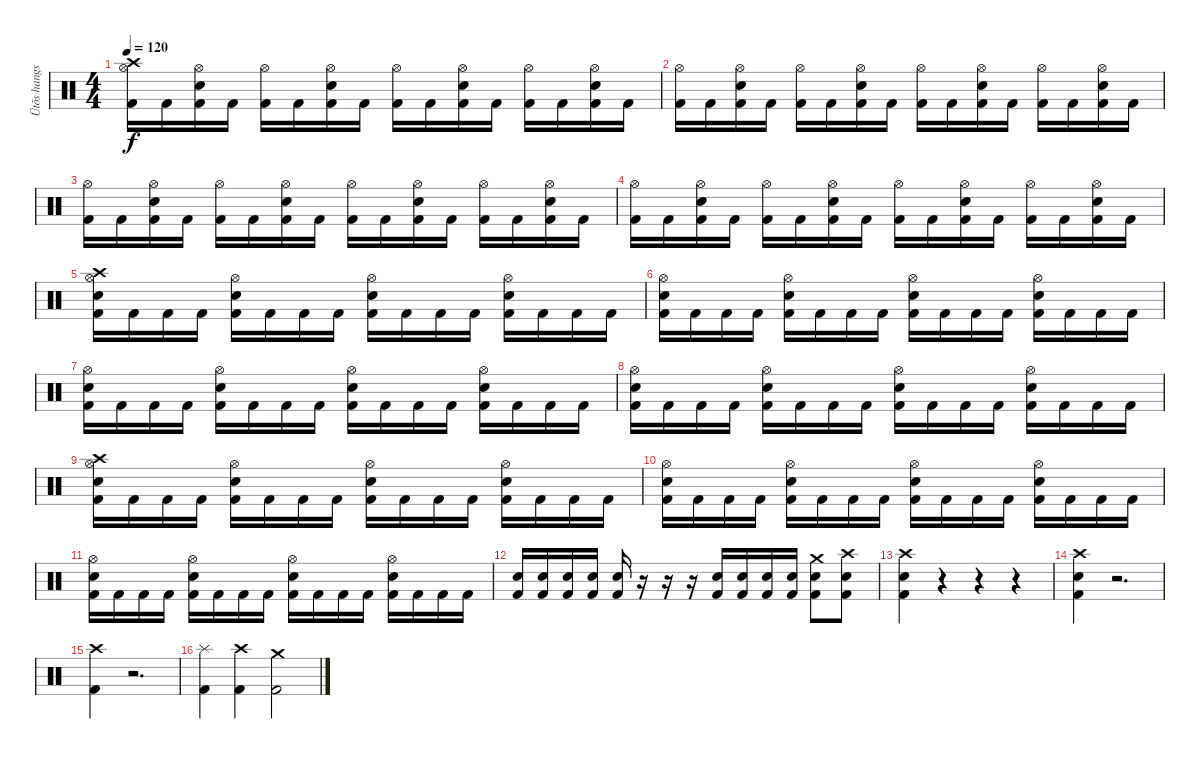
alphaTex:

\track ("Ütõs hangszer" "Ütõs hangs") {instrument percussion}
\staff {score}
\articulation defaults
\ts (4 4)
\tempo 120
\clef neutral
\ks c
("Crash high (hit)" "Hi-Hat (open)" "Kick (hit) 2").16{dy f} "Kick (hit) 2".16 ("Hi-Hat (open)" "Electric Snare (hit)" "Kick (hit) 2").16 "Kick (hit) 2".16 ("Hi-Hat (open)" "Kick (hit) 2").16 "Kick (hit) 2".16 ("Hi-Hat (open)" "Electric Snare (hit)" "Kick (hit) 2").16 "Kick (hit) 2".16 ("Hi-Hat (open)" "Kick (hit) 2").16 "Kick (hit) 2".16 ("Hi-Hat (open)" "Electric Snare (hit)" "Kick (hit) 2").16 "Kick (hit) 2".16 ("Hi-Hat (open)" "Kick (hit) 2").16 "Kick (hit) 2".16 ("Hi-Hat (open)" "Electric Snare (hit)" "Kick (hit) 2").16 "Kick (hit) 2".16 |
("Hi-Hat (open)" "Kick (hit) 2").16 "Kick (hit) 2".16 ("Hi-Hat (open)" "Electric Snare (hit)" "Kick (hit) 2").16 "Kick (hit) 2".16 ("Hi-Hat (open)" "Kick (hit) 2").16 "Kick (hit) 2".16 ("Hi-Hat (open)" "Electric Snare (hit)" "Kick (hit) 2").16 "Kick (hit) 2".16 ("Hi-Hat (open)" "Kick (hit) 2").16 "Kick (hit) 2".16 ("Hi-Hat (open)" "Electric Snare (hit)" "Kick (hit) 2").16 "Kick (hit) 2".16 ("Hi-Hat (open)" "Kick (hit) 2").16 "Kick (hit) 2".16 ("Hi-Hat (open)" "Electric Snare (hit)" "Kick (hit) 2").16 "Kick (hit) 2".16 |
("Hi-Hat (open)" "Kick (hit) 2").16 "Kick (hit) 2".16 ("Hi-Hat (open)" "Electric Snare (hit)" "Kick (hit) 2").16 "Kick (hit) 2".16 ("Hi-Hat (open)" "Kick (hit) 2").16 "Kick (hit) 2".16 ("Hi-Hat (open)" "Electric Snare (hit)" "Kick (hit) 2").16 "Kick (hit) 2".16 ("Hi-Hat (open)" "Kick (hit) 2").16 "Kick (hit) 2".16 ("Hi-Hat (open)" "Electric Snare (hit)" "Kick (hit) 2").16 "Kick (hit) 2".16 ("Hi-Hat (open)" "Kick (hit) 2").16 "Kick (hit) 2".16 ("Hi-Hat (open)" "Electric Snare (hit)" "Kick (hit) 2").16 "Kick (hit) 2".16 |
("Hi-Hat (open)" "Kick (hit) 2").16 "Kick (hit) 2".16 ("Hi-Hat (open)" "Electric Snare (hit)" "Kick (hit) 2").16 "Kick (hit) 2".16 ("Hi-Hat (open)" "Kick (hit) 2").16 "Kick (hit) 2".16 ("Hi-Hat (open)" "Electric Snare (hit)" "Kick (hit) 2").16 "Kick (hit) 2".16 ("Hi-Hat (open)" "Kick (hit) 2").16 "Kick (hit) 2".16 ("Hi-Hat (open)" "Electric Snare (hit)" "Kick (hit) 2").16 "Kick (hit) 2".16 ("Hi-Hat (open)" "Kick (hit) 2").16 "Kick (hit) 2".16 ("Hi-Hat (open)" "Electric Snare (hit)" "Kick (hit) 2").16 "Kick (hit) 2".16 |
("Crash high (hit)" "Hi-Hat (open)" "Electric Snare (hit)" "Kick (hit) 2").16 "Kick (hit) 2".16 "Kick (hit) 2".16 "Kick (hit) 2".16 ("Hi-Hat (open)" "Electric Snare (hit)" "Kick (hit) 2").16 "Kick (hit) 2".16 "Kick (hit) 2".16 "Kick (hit) 2".16 ("Hi-Hat (open)" "Electric Snare (hit)" "Kick (hit) 2").16 "Kick (hit) 2".16 "Kick (hit) 2".16 "Kick (hit) 2".16 ("Hi-Hat (open)" "Electric Snare (hit)" "Kick (hit) 2").16 "Kick (hit) 2".16 "Kick (hit) 2".16 "Kick (hit) 2".16 |
("Hi-Hat (open)" "Electric Snare (hit)" "Kick (hit) 2").16 "Kick (hit) 2".16 "Kick (hit) 2".16 "Kick (hit) 2".16 ("Hi-Hat (open)" "Electric Snare (hit)" "Kick (hit) 2").16 "Kick (hit) 2".16 "Kick (hit) 2".16 "Kick (hit) 2".16 ("Hi-Hat (open)" "Electric Snare (hit)" "Kick (hit) 2").16 "Kick (hit) 2".16 "Kick (hit) 2".16 "Kick (hit) 2".16 ("Hi-Hat (open)" "Electric Snare (hit)" "Kick (hit) 2").16 "Kick (hit) 2".16 "Kick (hit) 2".16 "Kick (hit) 2".16 |
("Hi-Hat (open)" "Electric Snare (hit)" "Kick (hit) 2").16 "Kick (hit) 2".16 "Kick (hit) 2".16 "Kick (hit) 2".16 ("Hi-Hat (open)" "Electric Snare (hit)" "Kick (hit) 2").16 "Kick (hit) 2".16 "Kick (hit) 2".16 "Kick (hit) 2".16 ("Hi-Hat (open)" "Electric Snare (hit)" "Kick (hit) 2").16 "Kick (hit) 2".16 "Kick (hit) 2".16 "Kick (hit) 2".16 ("Hi-Hat (open)" "Electric Snare (hit)" "Kick (hit) 2").16 "Kick (hit) 2".16 "Kick (hit) 2".16 "Kick (hit) 2".16 |
("Hi-Hat (open)" "Electric Snare (hit)" "Kick (hit) 2").16 "Kick (hit) 2".16 "Kick (hit) 2".16 "Kick (hit) 2".16 ("Hi-Hat (open)" "Electric Snare (hit)" "Kick (hit) 2").16 "Kick (hit) 2".16 "Kick (hit) 2".16 "Kick (hit) 2".16 ("Hi-Hat (open)" "Electric Snare (hit)" "Kick (hit) 2").16 "Kick (hit) 2".16 "Kick (hit) 2".16 "Kick (hit) 2".16 ("Hi-Hat (open)" "Electric Snare (hit)" "Kick (hit) 2").16 "Kick (hit) 2".16 "Kick (hit) 2".16 "Kick (hit) 2".16 |
("Crash high (hit)" "Hi-Hat (open)" "Electric Snare (hit)" "Kick (hit) 2").16 "Kick (hit) 2".16 "Kick (hit) 2".16 "Kick (hit) 2".16 ("Hi-Hat (open)" "Electric Snare (hit)" "Kick (hit) 2").16 "Kick (hit) 2".16 "Kick (hit) 2".16 "Kick (hit) 2".16 ("Hi-Hat (open)" "Electric Snare (hit)" "Kick (hit) 2").16 "Kick (hit) 2".16 "Kick (hit) 2".16 "Kick (hit) 2".16 ("Hi-Hat (open)" "Electric Snare (hit)" "Kick (hit) 2").16 "Kick (hit) 2".16 "Kick (hit) 2".16 "Kick (hit) 2".16 |
("Hi-Hat (open)" "Electric Snare (hit)" "Kick (hit) 2").16 "Kick (hit) 2".16 "Kick (hit) 2".16 "Kick (hit) 2".16 ("Hi-Hat (open)" "Electric Snare (hit)" "Kick (hit) 2").16 "Kick (hit) 2".16 "Kick (hit) 2".16 "Kick (hit) 2".16 ("Hi-Hat (open)" "Electric Snare (hit)" "Kick (hit) 2").16 "Kick (hit) 2".16 "Kick (hit) 2".16 "Kick (hit) 2".16 ("Hi-Hat (open)" "Electric Snare (hit)" "Kick (hit) 2").16 "Kick (hit) 2".16 "Kick (hit) 2".16 "Kick (hit) 2".16 |
("Hi-Hat (open)" "Electric Snare (hit)" "Kick (hit) 2").16 "Kick (hit) 2".16 "Kick (hit) 2".16 "Kick (hit) 2".16 ("Hi-Hat (open)" "Electric Snare (hit)" "Kick (hit) 2").16 "Kick (hit) 2".16 "Kick (hit) 2".16 "Kick (hit) 2".16 ("Hi-Hat (open)" "Electric Snare (hit)" "Kick (hit) 2").16 "Kick (hit) 2".16 "Kick (hit) 2".16 "Kick (hit) 2".16 ("Hi-Hat (open)" "Electric Snare (hit)" "Kick (hit) 2").16 "Kick (hit) 2".16 "Kick (hit) 2".16 "Kick (hit) 2".16 |
("Electric Snare (hit)" "Kick (hit) 2").16 ("Electric Snare (hit)" "Kick (hit) 2").16 ("Electric Snare (hit)" "Kick (hit) 2").16 ("Electric Snare (hit)" "Kick (hit) 2").16 ("Electric Snare (hit)" "Kick (hit) 2").16 r.16 r.16 r.16 ("Electric Snare (hit)" "Kick (hit) 2").16 ("Electric Snare (hit)" "Kick (hit) 2").16 ("Electric Snare (hit)" "Kick (hit) 2").16 ("Electric Snare (hit)" "Kick (hit) 2").16 ("Crash medium (hit)" "Electric Snare (hit)" "Kick (hit) 2").8 ("Crash high (hit)" "Electric Snare (hit)" "Kick (hit) 2").8 |
("Crash high (hit)" "Electric Snare (hit)" "Kick (hit) 2").4 r.4 r.4 r.4 |
("Crash high (hit)" "Electric Snare (hit)" "Kick (hit) 2").4 r.2{d} |
("Crash high (hit)" "Kick (hit) 2").4 r.2{d} |
("Splash (hit)" "Kick (hit) 2").4 ("Crash high (hit)" "Kick (hit) 2").4 ("Crash medium (hit)" "Kick (hit) 2").2
